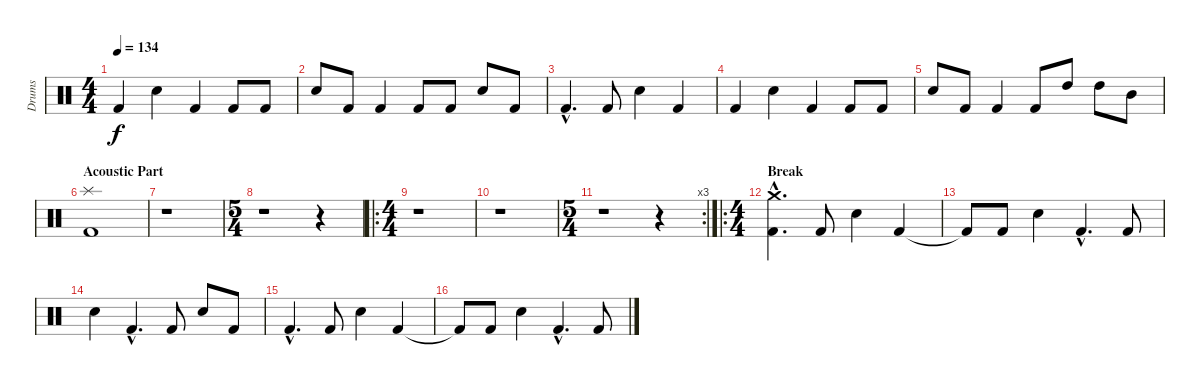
\track ("Drums" "Drums") {instrument percussion}
\staff {score}
\articulation defaults
\ts (4 4)
\tempo 134
\clef neutral
\ks c "Kick (hit) 2".4{dy f} "Snare (hit) 2".4 "Kick (hit) 2".4 "Kick (hit) 2".8 "Kick (hit) 2".8
|
"Snare (hit) 2".8 "Kick (hit) 2".8 "Kick (hit) 2".4 "Kick (hit) 2".8 "Kick (hit) 2".8 "Snare (hit) 2".8 "Kick (hit) 2".8 |
"Kick (hit) 2"{hac}.4{d} "Kick (hit) 2".8 "Snare (hit) 2".4 "Kick (hit) 2".4 |
"Kick (hit) 2".4 "Snare (hit) 2".4 "Kick (hit) 2".4 "Kick (hit) 2".8 "Kick (hit) 2".8 |
"Snare (hit) 2".8 "Kick (hit) 2".8 "Kick (hit) 2".4 "Kick (hit) 2".8 "High Tom (hit)".8 "High Tom (hit)".8 "Mid Tom (hit)".8 |
\section ("" "Acoustic Part")
("Kick (hit) 2" "Splash (hit)").1 |
r.1 |
\ts (5 4)
r.1 r.4 |
\ro
\ts (4 4)
r.1 |
r.1 |
\rc 3
\ts (5 4)
r.1 r.4 |
\ro
\ts (4 4)
\section ("" "Break")
("Kick (hit) 2"{hac} "Crash medium (hit)"{hac}).4{d} "Kick (hit) 2".8 "Snare (hit) 2".4 "Kick (hit) 2".4 |
"Kick (hit) 2"{t}.8 "Kick (hit) 2".8 "Snare (hit) 2".4 "Kick (hit) 2"{hac}.4{d} "Kick (hit) 2".8 |
"Snare (hit) 2".4 "Kick (hit) 2"{hac}.4{d} "Kick (hit) 2".8 "Snare (hit) 2".8 "Kick (hit) 2".8 |
"Kick (hit) 2"{hac}.4{d} "Kick (hit) 2".8 "Snare (hit) 2".4 "Kick (hit) 2".4 |
"Kick (hit) 2"{t}.8 "Kick (hit) 2".8 "Snare (hit) 2".4 "Kick (hit) 2"{hac}.4{d} "Kick (hit) 2".8
